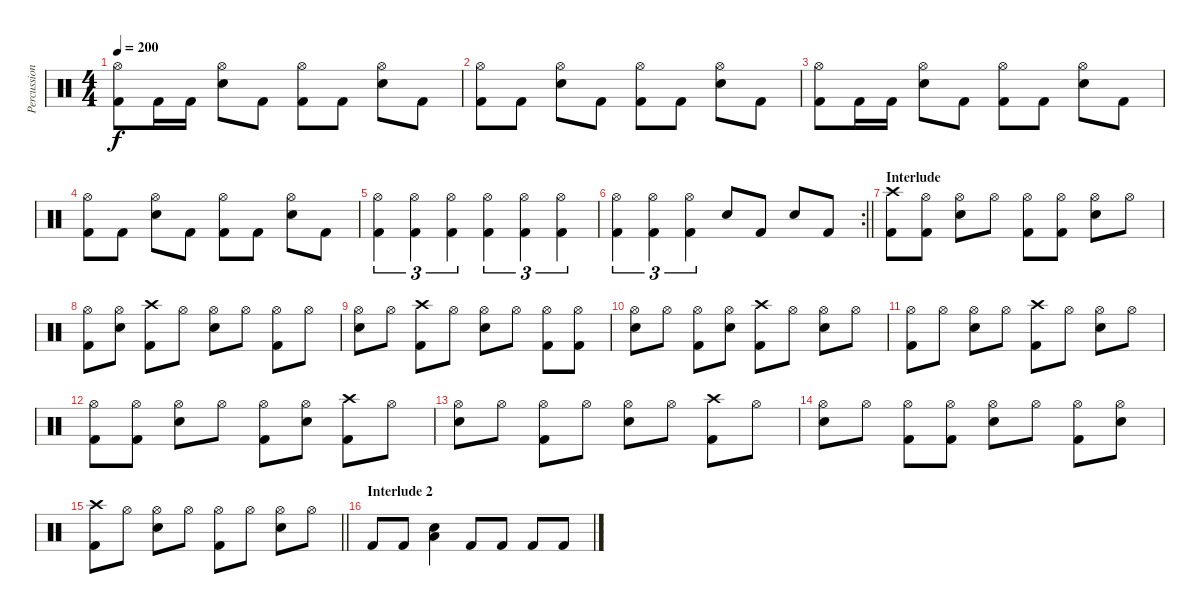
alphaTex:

\track ("Percussion" "Percussion") {instrument percussion}
\staff
\articulation defaults
\ts (4 4)
\tempo 200
\clef neutral
\ks c
("Hi-Hat (open)" "Kick (hit) 2").8{dy f} "Kick (hit) 2".16 "Kick (hit) 2".16 ("Hi-Hat (open)" "Electric Snare (hit)").8 "Kick (hit) 2".8 ("Hi-Hat (open)" "Kick (hit) 2").8 "Kick (hit) 2".8 ("Hi-Hat (open)" "Electric Snare (hit)").8 "Kick (hit) 2".8 |
("Hi-Hat (open)" "Kick (hit) 2").8 "Kick (hit) 2".8 ("Hi-Hat (open)" "Electric Snare (hit)").8 "Kick (hit) 2".8 ("Hi-Hat (open)" "Kick (hit) 2").8 "Kick (hit) 2".8 ("Hi-Hat (open)" "Electric Snare (hit)").8 "Kick (hit) 2".8 |
("Hi-Hat (open)" "Kick (hit) 2").8 "Kick (hit) 2".16 "Kick (hit) 2".16 ("Hi-Hat (open)" "Electric Snare (hit)").8 "Kick (hit) 2".8 ("Hi-Hat (open)" "Kick (hit) 2").8 "Kick (hit) 2".8 ("Hi-Hat (open)" "Electric Snare (hit)").8 "Kick (hit) 2".8 |
("Hi-Hat (open)" "Kick (hit) 2").8 "Kick (hit) 2".8 ("Hi-Hat (open)" "Electric Snare (hit)").8 "Kick (hit) 2".8 ("Hi-Hat (open)" "Kick (hit) 2").8 "Kick (hit) 2".8 ("Hi-Hat (open)" "Electric Snare (hit)").8 "Kick (hit) 2".8 |
("Hi-Hat (open)" "Kick (hit) 2").4{tu (3 2)} ("Hi-Hat (open)" "Kick (hit) 2").4{tu (3 2)} ("Hi-Hat (open)" "Kick (hit) 2").4{tu (3 2)} ("Hi-Hat (open)" "Kick (hit) 2").4{tu (3 2)} ("Hi-Hat (open)" "Kick (hit) 2").4{tu (3 2)} ("Hi-Hat (open)" "Kick (hit) 2").4{tu (3 2)} |
\rc 2
\barLineRight lightlight
("Hi-Hat (open)" "Kick (hit) 2").4{tu (3 2)} ("Hi-Hat (open)" "Kick (hit) 2").4{tu (3 2)} ("Hi-Hat (open)" "Kick (hit) 2").4{tu (3 2)} "Electric Snare (hit)".8 "Kick (hit) 2".8 "Electric Snare (hit)".8 "Kick (hit) 2".8 |
\section ("" "Interlude")
("Crash high (hit)" "Kick (hit) 2").8 ("Hi-Hat (open)" "Kick (hit) 2").8 ("Hi-Hat (open)" "Electric Snare (hit)").8 "Hi-Hat (open)".8 ("Hi-Hat (open)" "Kick (hit) 2").8 ("Hi-Hat (open)" "Kick (hit) 2").8 ("Hi-Hat (open)" "Electric Snare (hit)").8 "Hi-Hat (open)".8 |
("Hi-Hat (open)" "Kick (hit) 2").8 ("Hi-Hat (open)" "Electric Snare (hit)").8 ("Crash high (hit)" "Kick (hit) 2").8 "Hi-Hat (open)".8 ("Hi-Hat (open)" "Electric Snare (hit)").8 "Hi-Hat (open)".8 ("Hi-Hat (open)" "Kick (hit) 2").8 "Hi-Hat (open)".8 |
("Hi-Hat (open)" "Electric Snare (hit)").8 "Hi-Hat (open)".8 ("Crash high (hit)" "Kick (hit) 2").8 "Hi-Hat (open)".8 ("Hi-Hat (open)" "Electric Snare (hit)").8 "Hi-Hat (open)".8 ("Hi-Hat (open)" "Kick (hit) 2").8 ("Hi-Hat (open)" "Kick (hit) 2").8 |
("Hi-Hat (open)" "Electric Snare (hit)").8 "Hi-Hat (open)".8 ("Hi-Hat (open)" "Kick (hit) 2").8 ("Hi-Hat (open)" "Electric Snare (hit)").8 ("Crash high (hit)" "Kick (hit) 2").8 "Hi-Hat (open)".8 ("Hi-Hat (open)" "Electric Snare (hit)").8 "Hi-Hat (open)".8 |
("Hi-Hat (open)" "Kick (hit) 2").8 "Hi-Hat (open)".8 ("Hi-Hat (open)" "Electric Snare (hit)").8 "Hi-Hat (open)".8 ("Crash high (hit)" "Kick (hit) 2").8 "Hi-Hat (open)".8 ("Hi-Hat (open)" "Electric Snare (hit)").8 "Hi-Hat (open)".8 |
("Hi-Hat (open)" "Kick (hit) 2").8 ("Hi-Hat (open)" "Kick (hit) 2").8 ("Hi-Hat (open)" "Electric Snare (hit)").8 "Hi-Hat (open)".8 ("Hi-Hat (open)" "Kick (hit) 2").8 ("Hi-Hat (open)" "Electric Snare (hit)").8 ("Crash high (hit)" "Kick (hit) 2").8 "Hi-Hat (open)".8 |
("Hi-Hat (open)" "Electric Snare (hit)").8 "Hi-Hat (open)".8 ("Hi-Hat (open)" "Kick (hit) 2").8 "Hi-Hat (open)".8 ("Hi-Hat (open)" "Electric Snare (hit)").8 "Hi-Hat (open)".8 ("Crash high (hit)" "Kick (hit) 2").8 "Hi-Hat (open)".8 |
("Hi-Hat (open)" "Electric Snare (hit)").8 "Hi-Hat (open)".8 ("Hi-Hat (open)" "Kick (hit) 2").8 ("Hi-Hat (open)" "Kick (hit) 2").8 ("Hi-Hat (open)" "Electric Snare (hit)").8 "Hi-Hat (open)".8 ("Hi-Hat (open)" "Kick (hit) 2").8 ("Hi-Hat (open)" "Electric Snare (hit)").8 |
\barLineRight lightlight
("Crash high (hit)" "Kick (hit) 2").8 "Hi-Hat (open)".8 ("Hi-Hat (open)" "Electric Snare (hit)").8 "Hi-Hat (open)".8 ("Hi-Hat (open)" "Kick (hit) 2").8 "Hi-Hat (open)".8 ("Hi-Hat (open)" "Electric Snare (hit)").8 "Hi-Hat (open)".8 |
\section ("" "Interlude 2")
"Kick (hit) 2".8 "Kick (hit) 2".8 ("Electric Snare (hit)" "Low Floor Tom (hit)").4 "Kick (hit) 2".8 "Kick (hit) 2".8 "Kick (hit) 2".8 "Kick (hit) 2".8
